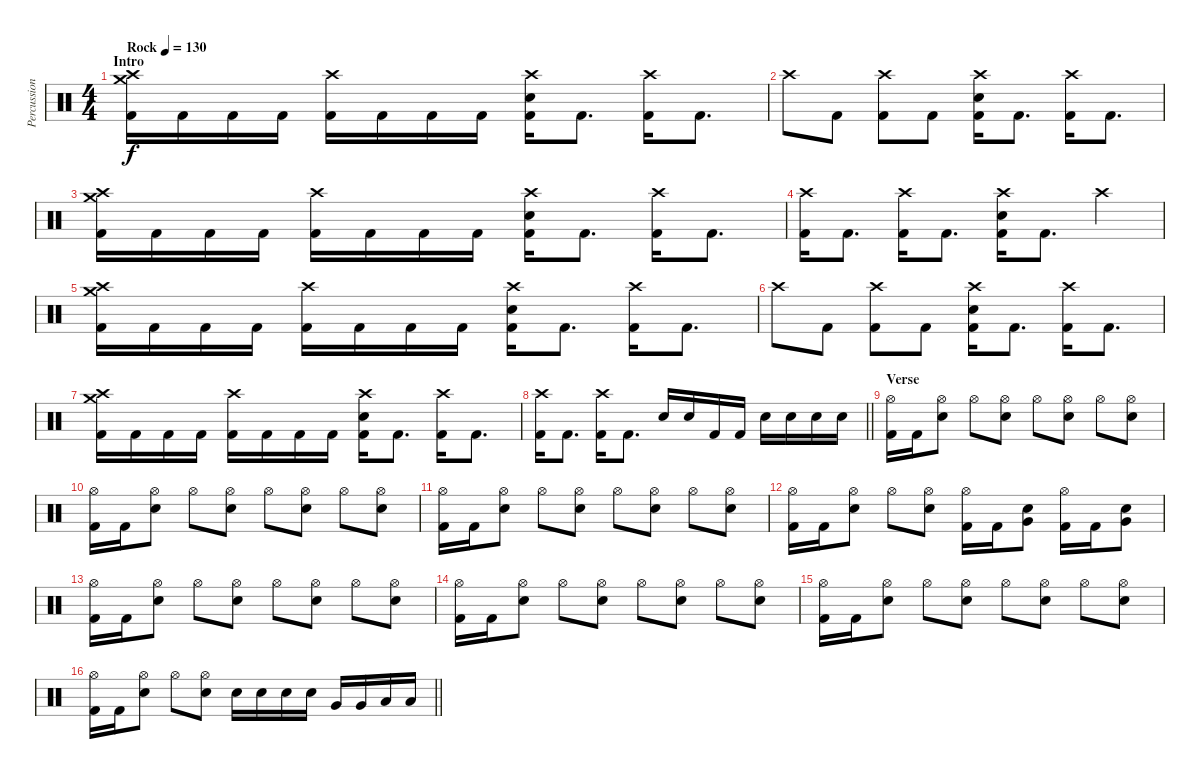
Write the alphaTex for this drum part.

\track ("Percussion" "Percussion") {instrument percussion}
\staff {score}
\articulation defaults
\ts (4 4)
\section ("" "Intro")
\tempo (130 "Rock")
\clef neutral
\ks c
("Crash high (hit)" "Crash medium (hit)" "Kick (hit) 2").16{dy f} "Kick (hit) 2".16 "Kick (hit) 2".16 "Kick (hit) 2".16 ("Crash high (hit)" "Kick (hit) 2").16 "Kick (hit) 2".16 "Kick (hit) 2".16 "Kick (hit) 2".16 ("Crash high (hit)" "Electric Snare (hit)" "Kick (hit) 2").16 "Kick (hit) 2".8{d} ("Crash high (hit)" "Kick (hit) 2").16 "Kick (hit) 2".8{d} |
"Crash high (hit)".8 "Kick (hit) 2".8 ("Crash high (hit)" "Kick (hit) 2").8 "Kick (hit) 2".8 ("Crash high (hit)" "Electric Snare (hit)" "Kick (hit) 2").16 "Kick (hit) 2".8{d} ("Crash high (hit)" "Kick (hit) 2").16 "Kick (hit) 2".8{d} |
("Crash high (hit)" "Crash medium (hit)" "Kick (hit) 2").16 "Kick (hit) 2".16 "Kick (hit) 2".16 "Kick (hit) 2".16 ("Crash high (hit)" "Kick (hit) 2").16 "Kick (hit) 2".16 "Kick (hit) 2".16 "Kick (hit) 2".16 ("Crash high (hit)" "Electric Snare (hit)" "Kick (hit) 2").16 "Kick (hit) 2".8{d} ("Crash high (hit)" "Kick (hit) 2").16 "Kick (hit) 2".8{d} |
("Crash high (hit)" "Kick (hit) 2").16 "Kick (hit) 2".8{d} ("Crash high (hit)" "Kick (hit) 2").16 "Kick (hit) 2".8{d} ("Crash high (hit)" "Electric Snare (hit)" "Kick (hit) 2").16 "Kick (hit) 2".8{d} "Crash high (hit)".4 |
("Crash high (hit)" "Crash medium (hit)" "Kick (hit) 2").16 "Kick (hit) 2".16 "Kick (hit) 2".16 "Kick (hit) 2".16 ("Crash high (hit)" "Kick (hit) 2").16 "Kick (hit) 2".16 "Kick (hit) 2".16 "Kick (hit) 2".16 ("Crash high (hit)" "Electric Snare (hit)" "Kick (hit) 2").16 "Kick (hit) 2".8{d} ("Crash high (hit)" "Kick (hit) 2").16 "Kick (hit) 2".8{d} |
"Crash high (hit)".8 "Kick (hit) 2".8 ("Crash high (hit)" "Kick (hit) 2").8 "Kick (hit) 2".8 ("Crash high (hit)" "Electric Snare (hit)" "Kick (hit) 2").16 "Kick (hit) 2".8{d} ("Crash high (hit)" "Kick (hit) 2").16 "Kick (hit) 2".8{d} |
("Crash high (hit)" "Crash medium (hit)" "Kick (hit) 2").16 "Kick (hit) 2".16 "Kick (hit) 2".16 "Kick (hit) 2".16 ("Crash high (hit)" "Kick (hit) 2").16 "Kick (hit) 2".16 "Kick (hit) 2".16 "Kick (hit) 2".16 ("Crash high (hit)" "Electric Snare (hit)" "Kick (hit) 2").16 "Kick (hit) 2".8{d} ("Crash high (hit)" "Kick (hit) 2").16 "Kick (hit) 2".8{d} |
\barLineRight lightlight
("Crash high (hit)" "Kick (hit) 2").16 "Kick (hit) 2".8{d} ("Crash high (hit)" "Kick (hit) 2").16 "Kick (hit) 2".8{d} "Electric Snare (hit)".16 "Electric Snare (hit)".16 "Kick (hit) 2".16 "Kick (hit) 2".16 "Electric Snare (hit)".16 "Electric Snare (hit)".16 "Electric Snare (hit)".16 "Electric Snare (hit)".16 |
\section ("" "Verse")
("Hi-Hat (open)" "Kick (hit) 2").16 "Kick (hit) 2".16 ("Hi-Hat (open)" "Electric Snare (hit)").8 "Hi-Hat (open)".8 ("Hi-Hat (open)" "Electric Snare (hit)").8 "Hi-Hat (open)".8 ("Hi-Hat (open)" "Electric Snare (hit)").8 "Hi-Hat (open)".8 ("Hi-Hat (open)" "Electric Snare (hit)").8 |
("Hi-Hat (open)" "Kick (hit) 2").16 "Kick (hit) 2".16 ("Hi-Hat (open)" "Electric Snare (hit)").8 "Hi-Hat (open)".8 ("Hi-Hat (open)" "Electric Snare (hit)").8 "Hi-Hat (open)".8 ("Hi-Hat (open)" "Electric Snare (hit)").8 "Hi-Hat (open)".8 ("Hi-Hat (open)" "Electric Snare (hit)").8 |
("Hi-Hat (open)" "Kick (hit) 2").16 "Kick (hit) 2".16 ("Hi-Hat (open)" "Electric Snare (hit)").8 "Hi-Hat (open)".8 ("Hi-Hat (open)" "Electric Snare (hit)").8 "Hi-Hat (open)".8 ("Hi-Hat (open)" "Electric Snare (hit)").8 "Hi-Hat (open)".8 ("Hi-Hat (open)" "Electric Snare (hit)").8 |
("Hi-Hat (open)" "Kick (hit) 2").16 "Kick (hit) 2".16 ("Hi-Hat (open)" "Electric Snare (hit)").8 "Hi-Hat (open)".8 ("Hi-Hat (open)" "Electric Snare (hit)").8 ("Hi-Hat (open)" "Kick (hit) 2").16 "Kick (hit) 2".16 ("Very Low Tom (hit)" "Electric Snare (hit)").8 ("Hi-Hat (open)" "Kick (hit) 2").16 "Kick (hit) 2".16 ("Very Low Tom (hit)" "Electric Snare (hit)").8 |
("Hi-Hat (open)" "Kick (hit) 2").16 "Kick (hit) 2".16 ("Hi-Hat (open)" "Electric Snare (hit)").8 "Hi-Hat (open)".8 ("Hi-Hat (open)" "Electric Snare (hit)").8 "Hi-Hat (open)".8 ("Hi-Hat (open)" "Electric Snare (hit)").8 "Hi-Hat (open)".8 ("Hi-Hat (open)" "Electric Snare (hit)").8 |
("Hi-Hat (open)" "Kick (hit) 2").16 "Kick (hit) 2".16 ("Hi-Hat (open)" "Electric Snare (hit)").8 "Hi-Hat (open)".8 ("Hi-Hat (open)" "Electric Snare (hit)").8 "Hi-Hat (open)".8 ("Hi-Hat (open)" "Electric Snare (hit)").8 "Hi-Hat (open)".8 ("Hi-Hat (open)" "Electric Snare (hit)").8 |
("Hi-Hat (open)" "Kick (hit) 2").16 "Kick (hit) 2".16 ("Hi-Hat (open)" "Electric Snare (hit)").8 "Hi-Hat (open)".8 ("Hi-Hat (open)" "Electric Snare (hit)").8 "Hi-Hat (open)".8 ("Hi-Hat (open)" "Electric Snare (hit)").8 "Hi-Hat (open)".8 ("Hi-Hat (open)" "Electric Snare (hit)").8 |
\barLineRight lightlight
("Hi-Hat (open)" "Kick (hit) 2").16 "Kick (hit) 2".16 ("Hi-Hat (open)" "Electric Snare (hit)").8 "Hi-Hat (open)".8 ("Hi-Hat (open)" "Electric Snare (hit)").8 "Electric Snare (hit)".16 "Electric Snare (hit)".16 "Electric Snare (hit)".16 "Electric Snare (hit)".16 "Very Low Tom (hit)".16 "Very Low Tom (hit)".16 "Low Floor Tom (hit)".16 "Low Floor Tom (hit)".16
